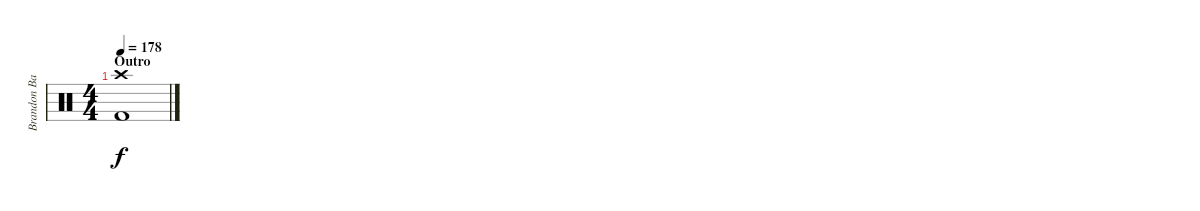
\track ("Brandon Barnes - Drums" "Brandon Ba") {instrument percussion}
\staff {score}
\articulation defaults
\ts (4 4)
\section ("" "Outro")
\tempo 178
\clef neutral
\ks c
("Crash high (hit)" "Kick (hit) 2").1{dy f}
